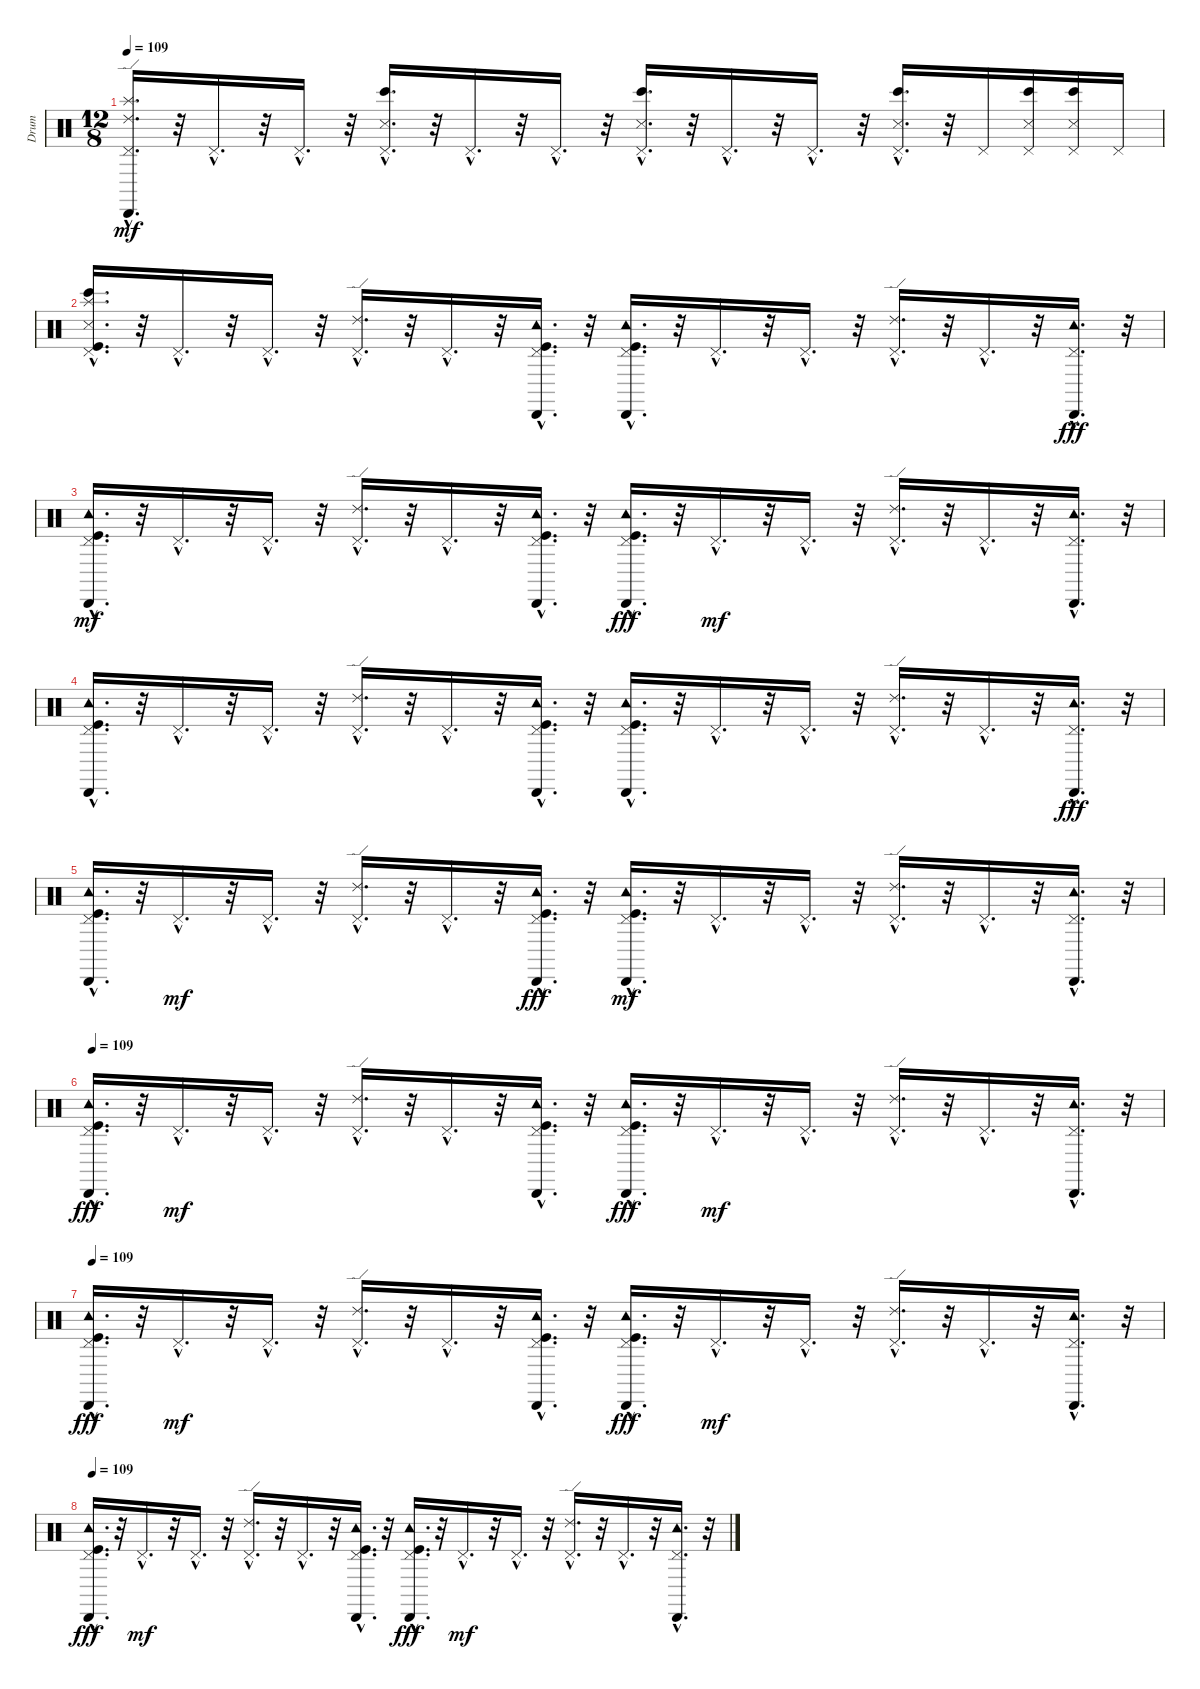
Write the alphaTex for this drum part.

\track ("Drum" "Drum") {instrument percussion}
\staff {score}
\articulation defaults
\ts (12 8)
\tempo 109
\clef neutral
\ks c
("Pedal Hi-Hat (hit)"{hac} "Splash (hit)"{hac} "Ride (edge) 2"{hac} "Cabasa (hit)"{hac}).16{d dy mf} r.32 "Pedal Hi-Hat (hit)"{hac}.16{d} r.32 "Pedal Hi-Hat (hit)"{hac}.16{d} r.32 ("Bongo High (hit)"{hac} "Snare (side stick) 3"{hac} "Pedal Hi-Hat (hit)"{hac}).16{d} r.32 "Pedal Hi-Hat (hit)"{hac}.16{d} r.32 "Pedal Hi-Hat (hit)"{hac}.16{d} r.32 ("Pedal Hi-Hat (hit)"{hac} "Bongo High (hit)"{hac} "Snare (side stick) 3"{hac}).16{d} r.32 "Pedal Hi-Hat (hit)"{hac}.16{d} r.32 "Pedal Hi-Hat (hit)"{hac}.16{d} r.32 ("Pedal Hi-Hat (hit)"{hac} "Bongo High (hit)"{hac} "Snare (side stick) 3"{hac}).16{d} r.32 "Pedal Hi-Hat (hit)".16 ("Bongo High (hit)" "Snare (side stick) 3" "Pedal Hi-Hat (hit)").16 ("Pedal Hi-Hat (hit)" "Bongo High (hit)" "Snare (side stick) 3").16 "Pedal Hi-Hat (hit)".16 |
("Snare (side stick) 3"{hac} "Pedal Hi-Hat (hit)"{hac} "Bongo High (hit)"{hac} "Kick (hit)"{hac} "Splash (hit)"{hac}).16{d} r.32 "Pedal Hi-Hat (hit)"{hac}.16{d} r.32 "Pedal Hi-Hat (hit)"{hac}.16{d} r.32 ("Pedal Hi-Hat (hit)"{hac} "Ride (edge) 2"{hac}).16{d} r.32 "Pedal Hi-Hat (hit)"{hac}.16{d} r.32 ("Cabasa (hit)"{hac} "Pedal Hi-Hat (hit)"{hac} "Kick (hit)"{hac} "Tambourine (hit)"{hac}).16{d} r.32 ("Cabasa (hit)"{hac} "Pedal Hi-Hat (hit)"{hac} "Tambourine (hit)"{hac} "Kick (hit)"{hac}).16{d} r.32 "Pedal Hi-Hat (hit)"{hac}.16{d} r.32 "Pedal Hi-Hat (hit)"{hac}.16{d} r.32 ("Ride (edge) 2"{hac} "Pedal Hi-Hat (hit)"{hac}).16{d} r.32 "Pedal Hi-Hat (hit)"{hac}.16{d} r.32 ("Cabasa (hit)"{hac} "Tambourine (hit)"{hac} "Pedal Hi-Hat (hit)"{hac}).16{d dy fff} r.32 |
("Kick (hit)"{hac} "Cabasa (hit)"{hac} "Pedal Hi-Hat (hit)"{hac} "Tambourine (hit)"{hac}).16{d dy mf} r.32 "Pedal Hi-Hat (hit)"{hac}.16{d} r.32 "Pedal Hi-Hat (hit)"{hac}.16{d} r.32 ("Ride (edge) 2"{hac} "Pedal Hi-Hat (hit)"{hac}).16{d} r.32 "Pedal Hi-Hat (hit)"{hac}.16{d} r.32 ("Pedal Hi-Hat (hit)"{hac} "Kick (hit)"{hac} "Cabasa (hit)"{hac} "Tambourine (hit)"{hac}).16{d} r.32 ("Tambourine (hit)"{hac} "Cabasa (hit)"{hac} "Kick (hit)"{hac} "Pedal Hi-Hat (hit)"{hac}).16{d dy fff} r.32 "Pedal Hi-Hat (hit)"{hac}.16{d dy mf} r.32 "Pedal Hi-Hat (hit)"{hac}.16{d} r.32 ("Pedal Hi-Hat (hit)"{hac} "Ride (edge) 2"{hac}).16{d} r.32 "Pedal Hi-Hat (hit)"{hac}.16{d} r.32 ("Cabasa (hit)"{hac} "Pedal Hi-Hat (hit)"{hac} "Tambourine (hit)"{hac}).16{d} r.32 |
("Cabasa (hit)"{hac} "Pedal Hi-Hat (hit)"{hac} "Tambourine (hit)"{hac} "Kick (hit)"{hac}).16{d} r.32 "Pedal Hi-Hat (hit)"{hac}.16{d} r.32 "Pedal Hi-Hat (hit)"{hac}.16{d} r.32 ("Pedal Hi-Hat (hit)"{hac} "Ride (edge) 2"{hac}).16{d} r.32 "Pedal Hi-Hat (hit)"{hac}.16{d} r.32 ("Tambourine (hit)"{hac} "Pedal Hi-Hat (hit)"{hac} "Cabasa (hit)"{hac} "Kick (hit)"{hac}).16{d} r.32 ("Cabasa (hit)"{hac} "Pedal Hi-Hat (hit)"{hac} "Tambourine (hit)"{hac} "Kick (hit)"{hac}).16{d} r.32 "Pedal Hi-Hat (hit)"{hac}.16{d} r.32 "Pedal Hi-Hat (hit)"{hac}.16{d} r.32 ("Pedal Hi-Hat (hit)"{hac} "Ride (edge) 2"{hac}).16{d} r.32 "Pedal Hi-Hat (hit)"{hac}.16{d} r.32 ("Tambourine (hit)"{hac} "Pedal Hi-Hat (hit)"{hac} "Cabasa (hit)"{hac}).16{d dy fff} r.32 |
("Kick (hit)"{hac} "Cabasa (hit)"{hac} "Tambourine (hit)"{hac} "Pedal Hi-Hat (hit)"{hac}).16{d} r.32 "Pedal Hi-Hat (hit)"{hac}.16{d dy mf} r.32 "Pedal Hi-Hat (hit)"{hac}.16{d} r.32 ("Pedal Hi-Hat (hit)"{hac} "Ride (edge) 2"{hac}).16{d} r.32 "Pedal Hi-Hat (hit)"{hac}.16{d} r.32 ("Kick (hit)"{hac} "Tambourine (hit)"{hac} "Pedal Hi-Hat (hit)"{hac} "Cabasa (hit)"{hac}).16{d dy fff} r.32 ("Kick (hit)"{hac} "Cabasa (hit)"{hac} "Pedal Hi-Hat (hit)"{hac} "Tambourine (hit)"{hac}).16{d dy mf} r.32 "Pedal Hi-Hat (hit)"{hac}.16{d} r.32 "Pedal Hi-Hat (hit)"{hac}.16{d} r.32 ("Pedal Hi-Hat (hit)"{hac} "Ride (edge) 2"{hac}).16{d} r.32 "Pedal Hi-Hat (hit)"{hac}.16{d} r.32 ("Cabasa (hit)"{hac} "Pedal Hi-Hat (hit)"{hac} "Tambourine (hit)"{hac}).16{d} r.32 |
\tempo 109
("Kick (hit)"{hac} "Tambourine (hit)"{hac} "Pedal Hi-Hat (hit)"{hac} "Cabasa (hit)"{hac}).16{d dy fff} r.32 "Pedal Hi-Hat (hit)"{hac}.16{d dy mf} r.32 "Pedal Hi-Hat (hit)"{hac}.16{d} r.32 ("Ride (edge) 2"{hac} "Pedal Hi-Hat (hit)"{hac}).16{d} r.32 "Pedal Hi-Hat (hit)"{hac}.16{d} r.32 ("Kick (hit)"{hac} "Cabasa (hit)"{hac} "Pedal Hi-Hat (hit)"{hac} "Tambourine (hit)"{hac}).16{d} r.32 ("Kick (hit)"{hac} "Tambourine (hit)"{hac} "Pedal Hi-Hat (hit)"{hac} "Cabasa (hit)"{hac}).16{d dy fff} r.32 "Pedal Hi-Hat (hit)"{hac}.16{d dy mf} r.32 "Pedal Hi-Hat (hit)"{hac}.16{d} r.32 ("Ride (edge) 2"{hac} "Pedal Hi-Hat (hit)"{hac}).16{d} r.32 "Pedal Hi-Hat (hit)"{hac}.16{d} r.32 ("Cabasa (hit)"{hac} "Pedal Hi-Hat (hit)"{hac} "Tambourine (hit)"{hac}).16{d} r.32 |
\tempo 109
("Kick (hit)"{hac} "Tambourine (hit)"{hac} "Pedal Hi-Hat (hit)"{hac} "Cabasa (hit)"{hac}).16{d dy fff} r.32 "Pedal Hi-Hat (hit)"{hac}.16{d dy mf} r.32 "Pedal Hi-Hat (hit)"{hac}.16{d} r.32 ("Ride (edge) 2"{hac} "Pedal Hi-Hat (hit)"{hac}).16{d} r.32 "Pedal Hi-Hat (hit)"{hac}.16{d} r.32 ("Kick (hit)"{hac} "Cabasa (hit)"{hac} "Pedal Hi-Hat (hit)"{hac} "Tambourine (hit)"{hac}).16{d} r.32 ("Kick (hit)"{hac} "Tambourine (hit)"{hac} "Pedal Hi-Hat (hit)"{hac} "Cabasa (hit)"{hac}).16{d dy fff} r.32 "Pedal Hi-Hat (hit)"{hac}.16{d dy mf} r.32 "Pedal Hi-Hat (hit)"{hac}.16{d} r.32 ("Ride (edge) 2"{hac} "Pedal Hi-Hat (hit)"{hac}).16{d} r.32 "Pedal Hi-Hat (hit)"{hac}.16{d} r.32 ("Cabasa (hit)"{hac} "Pedal Hi-Hat (hit)"{hac} "Tambourine (hit)"{hac}).16{d} r.32 |
\tempo 109
("Kick (hit)"{hac} "Tambourine (hit)"{hac} "Pedal Hi-Hat (hit)"{hac} "Cabasa (hit)"{hac}).16{d dy fff} r.32 "Pedal Hi-Hat (hit)"{hac}.16{d dy mf} r.32 "Pedal Hi-Hat (hit)"{hac}.16{d} r.32 ("Ride (edge) 2"{hac} "Pedal Hi-Hat (hit)"{hac}).16{d} r.32 "Pedal Hi-Hat (hit)"{hac}.16{d} r.32 ("Kick (hit)"{hac} "Cabasa (hit)"{hac} "Pedal Hi-Hat (hit)"{hac} "Tambourine (hit)"{hac}).16{d} r.32 ("Kick (hit)"{hac} "Tambourine (hit)"{hac} "Pedal Hi-Hat (hit)"{hac} "Cabasa (hit)"{hac}).16{d dy fff} r.32 "Pedal Hi-Hat (hit)"{hac}.16{d dy mf} r.32 "Pedal Hi-Hat (hit)"{hac}.16{d} r.32 ("Ride (edge) 2"{hac} "Pedal Hi-Hat (hit)"{hac}).16{d} r.32 "Pedal Hi-Hat (hit)"{hac}.16{d} r.32 ("Cabasa (hit)"{hac} "Pedal Hi-Hat (hit)"{hac} "Tambourine (hit)"{hac}).16{d} r.32
